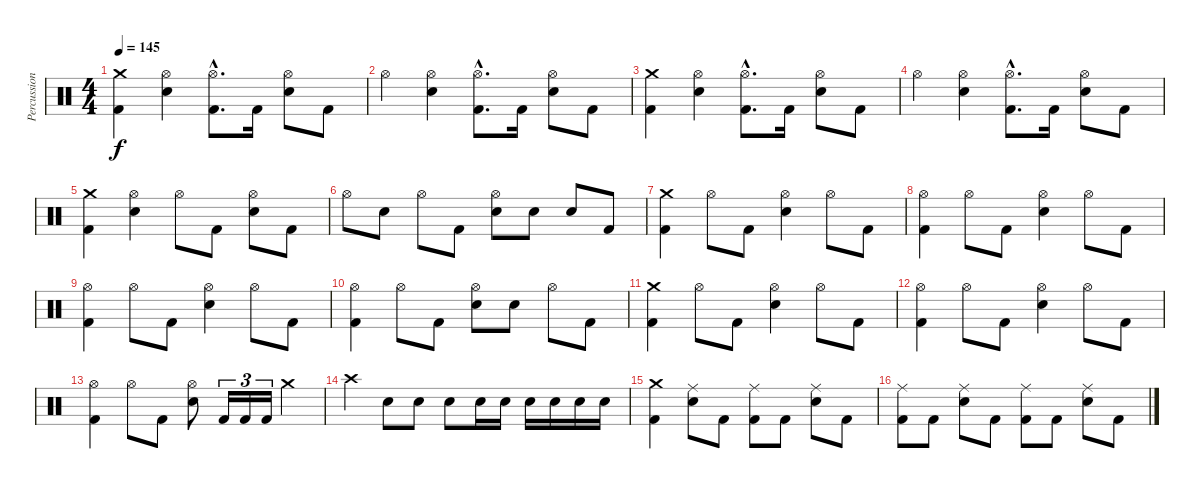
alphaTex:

\track ("Percussion" "Percussion") {instrument percussion}
\staff {score}
\articulation defaults
\ts (4 4)
\tempo 145
\clef neutral
\ks c
("Crash medium (hit)" "Kick (hit) 2").4{dy f} ("Hi-Hat (open)" "Snare (hit) 2").4 ("Hi-Hat (open)"{hac} "Kick (hit) 2"{hac}).8{d} "Kick (hit) 2".16 ("Hi-Hat (open)" "Snare (hit) 2").8 "Kick (hit) 2".8 |
"Hi-Hat (open)".4 ("Hi-Hat (open)" "Snare (hit) 2").4 ("Hi-Hat (open)"{hac} "Kick (hit) 2"{hac}).8{d} "Kick (hit) 2".16 ("Hi-Hat (open)" "Snare (hit) 2").8 "Kick (hit) 2".8 |
("Crash medium (hit)" "Kick (hit) 2").4 ("Hi-Hat (open)" "Snare (hit) 2").4 ("Hi-Hat (open)"{hac} "Kick (hit) 2"{hac}).8{d} "Kick (hit) 2".16 ("Hi-Hat (open)" "Snare (hit) 2").8 "Kick (hit) 2".8 |
"Hi-Hat (open)".4 ("Hi-Hat (open)" "Snare (hit) 2").4 ("Hi-Hat (open)"{hac} "Kick (hit) 2"{hac}).8{d} "Kick (hit) 2".16 ("Hi-Hat (open)" "Snare (hit) 2").8 "Kick (hit) 2".8 |
("Crash medium (hit)" "Kick (hit) 2").4 ("Hi-Hat (open)" "Snare (hit) 2").4 "Hi-Hat (open)".8 "Kick (hit) 2".8 ("Hi-Hat (open)" "Snare (hit) 2").8 "Kick (hit) 2".8 |
"Hi-Hat (open)".8 "Snare (hit) 2".8 "Hi-Hat (open)".8 "Kick (hit) 2".8 ("Hi-Hat (open)" "Snare (hit) 2").8 "Snare (hit) 2".8 "Snare (hit) 2".8 "Kick (hit) 2".8 |
("Crash medium (hit)" "Kick (hit) 2").4 "Hi-Hat (open)".8 "Kick (hit) 2".8 ("Hi-Hat (open)" "Snare (hit) 2").4 "Hi-Hat (open)".8 "Kick (hit) 2".8 |
("Hi-Hat (open)" "Kick (hit) 2").4 "Hi-Hat (open)".8 "Kick (hit) 2".8 ("Hi-Hat (open)" "Snare (hit) 2").4 "Hi-Hat (open)".8 "Kick (hit) 2".8 |
("Hi-Hat (open)" "Kick (hit) 2").4 "Hi-Hat (open)".8 "Kick (hit) 2".8 ("Hi-Hat (open)" "Snare (hit) 2").4 "Hi-Hat (open)".8 "Kick (hit) 2".8 |
("Hi-Hat (open)" "Kick (hit) 2").4 "Hi-Hat (open)".8 "Kick (hit) 2".8 ("Hi-Hat (open)" "Snare (hit) 2").8 "Snare (hit) 2".8 "Hi-Hat (open)".8 "Kick (hit) 2".8 |
("Crash medium (hit)" "Kick (hit) 2").4 "Hi-Hat (open)".8 "Kick (hit) 2".8 ("Hi-Hat (open)" "Snare (hit) 2").4 "Hi-Hat (open)".8 "Kick (hit) 2".8 |
("Hi-Hat (open)" "Kick (hit) 2").4 "Hi-Hat (open)".8 "Kick (hit) 2".8 ("Hi-Hat (open)" "Snare (hit) 2").4 "Hi-Hat (open)".8 "Kick (hit) 2".8 |
("Hi-Hat (open)" "Kick (hit) 2").4 "Hi-Hat (open)".8 "Kick (hit) 2".8 ("Hi-Hat (open)" "Snare (hit) 2").8 "Kick (hit) 2".16{tu (3 2)} "Kick (hit) 2".16{tu (3 2)} "Kick (hit) 2".16{tu (3 2)} "Crash medium (hit)".4 |
"Crash high (hit)".4 "Snare (hit) 2".8 "Snare (hit) 2".8 "Snare (hit) 2".8 "Snare (hit) 2".16 "Snare (hit) 2".16 "Snare (hit) 2".16 "Snare (hit) 2".16 "Snare (hit) 2".16 "Snare (hit) 2".16 |
("Crash medium (hit)" "Kick (hit) 2").4 ("Ride (middle)" "Snare (hit) 2").8 "Kick (hit) 2".8 ("Ride (middle)" "Kick (hit) 2").8 "Kick (hit) 2".8 ("Ride (middle)" "Snare (hit) 2").8 "Kick (hit) 2".8 |
("Ride (middle)" "Kick (hit) 2").8 "Kick (hit) 2".8 ("Ride (middle)" "Snare (hit) 2").8 "Kick (hit) 2".8 ("Ride (middle)" "Kick (hit) 2").8 "Kick (hit) 2".8 ("Ride (middle)" "Snare (hit) 2").8 "Kick (hit) 2".8
